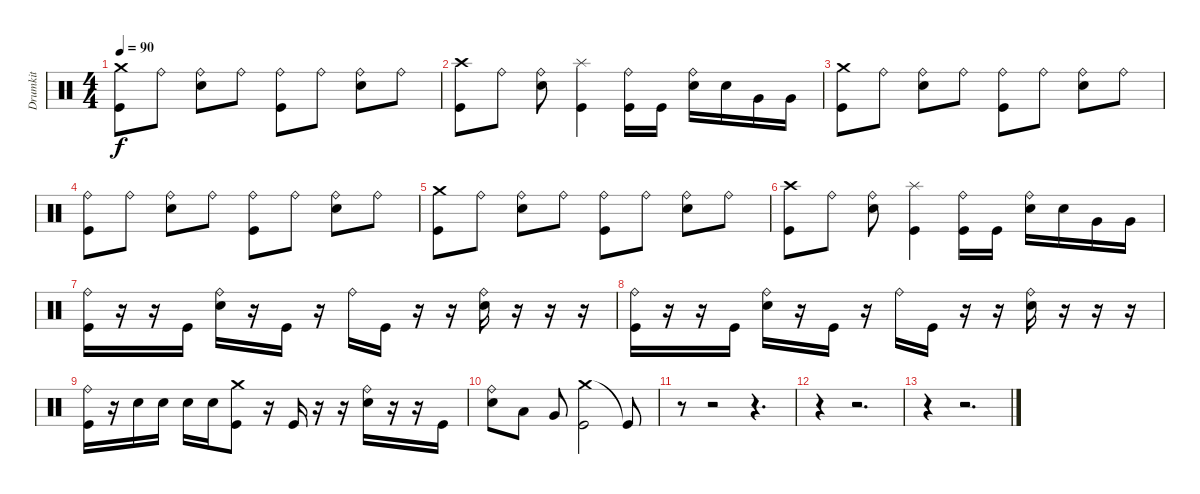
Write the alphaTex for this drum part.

\track ("Drumkit" "Drumkit") {instrument percussion}
\staff {score}
\articulation defaults
\ts (4 4)
\tempo 90
\clef neutral
\ks c
("Crash medium (hit)" "Kick (hit)").8{dy f} "Ride (bell)".8 ("Ride (bell)" "Snare (hit) 2").8 "Ride (bell)".8 ("Ride (bell)" "Kick (hit)").8 "Ride (bell)".8 ("Ride (bell)" "Snare (hit) 2").8 "Ride (bell)".8 |
("Crash high (hit)" "Kick (hit)").8 "Ride (bell)".8 ("Ride (bell)" "Snare (hit) 2").8 ("Splash (hit)" "Kick (hit)").4 ("Ride (bell)" "Kick (hit)").16 "Kick (hit)".16 ("Ride (bell)" "Snare (hit) 2").16 "Snare (hit) 2".16 "Very Low Tom (hit)".16 "Very Low Tom (hit)".16 |
("Crash medium (hit)" "Kick (hit)").8 "Ride (bell)".8 ("Ride (bell)" "Snare (hit) 2").8 "Ride (bell)".8 ("Ride (bell)" "Kick (hit)").8 "Ride (bell)".8 ("Ride (bell)" "Snare (hit) 2").8 "Ride (bell)".8 |
("Ride (bell)" "Kick (hit)").8 "Ride (bell)".8 ("Ride (bell)" "Snare (hit) 2").8 "Ride (bell)".8 ("Ride (bell)" "Kick (hit)").8 "Ride (bell)".8 ("Ride (bell)" "Snare (hit) 2").8 "Ride (bell)".8 |
("Crash medium (hit)" "Kick (hit)").8 "Ride (bell)".8 ("Ride (bell)" "Snare (hit) 2").8 "Ride (bell)".8 ("Ride (bell)" "Kick (hit)").8 "Ride (bell)".8 ("Ride (bell)" "Snare (hit) 2").8 "Ride (bell)".8 |
("Crash high (hit)" "Kick (hit)").8 "Ride (bell)".8 ("Ride (bell)" "Snare (hit) 2").8 ("Splash (hit)" "Kick (hit)").4 ("Ride (bell)" "Kick (hit)").16 "Kick (hit)".16 ("Ride (bell)" "Snare (hit) 2").16 "Snare (hit) 2".16 "Very Low Tom (hit)".16 "Very Low Tom (hit)".16 |
("Ride (bell)" "Kick (hit)").16 r.16 r.16 "Kick (hit)".16 ("Ride (bell)" "Snare (hit) 2").16 r.16 "Kick (hit)".16 r.16 "Ride (bell)".16 "Kick (hit)".16 r.16 r.16 ("Ride (bell)" "Snare (hit) 2").16 r.16 r.16 r.16 |
("Ride (bell)" "Kick (hit)").16 r.16 r.16 "Kick (hit)".16 ("Ride (bell)" "Snare (hit) 2").16 r.16 "Kick (hit)".16 r.16 "Ride (bell)".16 "Kick (hit)".16 r.16 r.16 ("Ride (bell)" "Snare (hit) 2").16 r.16 r.16 r.16 |
("Ride (bell)" "Kick (hit)").16 r.16 "Snare (hit) 2".16 "Snare (hit) 2".16 "Snare (hit) 2".16 "Snare (hit) 2".16 ("Crash medium (hit)" "Kick (hit)").8 r.16 "Kick (hit)".16 r.16 r.16 ("Ride (bell)" "Snare (hit) 2").16 r.16 r.16 "Kick (hit)".16 |
("Ride (bell)" "Snare (hit) 2").8 "Low Tom (hit)".8 "Very Low Tom (hit)".8 ("Crash medium (hit)" "Kick (hit)").2 "Kick (hit)"{t}.8 |
r.8 r.2 r.4{d} |
r.4 r.2{d} |
r.4 r.2{d}
